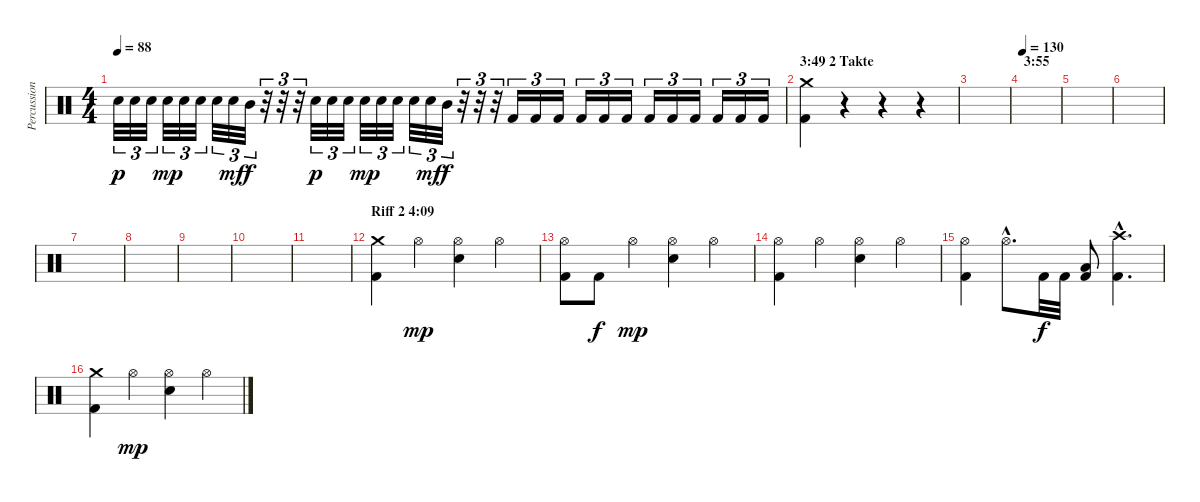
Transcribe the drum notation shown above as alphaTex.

\track ("Percussion" "Percussion") {instrument percussion}
\staff {score}
\articulation defaults
\ts (4 4)
\tempo 88
\clef neutral
\ks c "Electric Snare (hit)".32{tu (3 2) dy p} "Electric Snare (hit)".32{tu (3 2)} "Electric Snare (hit)".32{tu (3 2)} "Electric Snare (hit)".32{tu (3 2) dy mp} "Electric Snare (hit)".32{tu (3 2)} "Electric Snare (hit)".32{tu (3 2)} "Electric Snare (hit)".32{tu (3 2)} "Electric Snare (hit)".32{tu (3 2) dy mf} "Mid Tom (hit)".32{tu (3 2) dy f}
r.32{tu (3 2)} r.32{tu (3 2)} r.32{tu (3 2)} "Electric Snare (hit)".32{tu (3 2) dy p} "Electric Snare (hit)".32{tu (3 2)} "Electric Snare (hit)".32{tu (3 2)} "Electric Snare (hit)".32{tu (3 2) dy mp} "Electric Snare (hit)".32{tu (3 2)} "Electric Snare (hit)".32{tu (3 2)} "Electric Snare (hit)".32{tu (3 2)} "Electric Snare (hit)".32{tu (3 2) dy mf} "Mid Tom (hit)".32{tu (3 2) dy f} r.32{tu (3 2)} r.32{tu (3 2)} r.32{tu (3 2)} "Kick (hit) 2".16{tu (3 2)} "Kick (hit) 2".16{tu (3 2)} "Kick (hit) 2".16{tu (3 2)} "Kick (hit) 2".16{tu (3 2)} "Kick (hit) 2".16{tu (3 2)} "Kick (hit) 2".16{tu (3 2)} "Kick (hit) 2".16{tu (3 2)} "Kick (hit) 2".16{tu (3 2)} "Kick (hit) 2".16{tu (3 2)} "Kick (hit) 2".16{tu (3 2)} "Kick (hit) 2".16{tu (3 2)} "Kick (hit) 2".16{tu (3 2)} |
\section ("" "3:49 2 Takte")
("Kick (hit) 2" "Crash medium (hit)").4 r.4 r.4 r.4 |
|
\section ("" "3:55")
\tempo 130
|
|
|
|
|
|
|
|
\section ("" "Riff 2 4:09")
("Kick (hit) 2" "Crash medium (hit)").4 "Hi-Hat (open)".4{dy mp} ("Electric Snare (hit)" "Hi-Hat (open)").4 "Hi-Hat (open)".4 |
("Kick (hit) 2" "Hi-Hat (open)").8 "Kick (hit) 2".8{dy f} "Hi-Hat (open)".4{dy mp} ("Electric Snare (hit)" "Hi-Hat (open)").4 "Hi-Hat (open)".4 |
("Kick (hit) 2" "Hi-Hat (open)").4 "Hi-Hat (open)".4 ("Electric Snare (hit)" "Hi-Hat (open)").4 "Hi-Hat (open)".4 |
("Kick (hit) 2" "Hi-Hat (open)").4 "Hi-Hat (open)"{hac}.8{d} "Kick (hit) 2".32{dy f} "Kick (hit) 2".32 ("Kick (hit) 2" "Low Tom (hit)").8 ("Kick (hit) 2"{hac} "Crash high (hit)"{hac}).4{d} |
("Kick (hit) 2" "Crash medium (hit)").4 "Hi-Hat (open)".4{dy mp} ("Electric Snare (hit)" "Hi-Hat (open)").4 "Hi-Hat (open)".4
